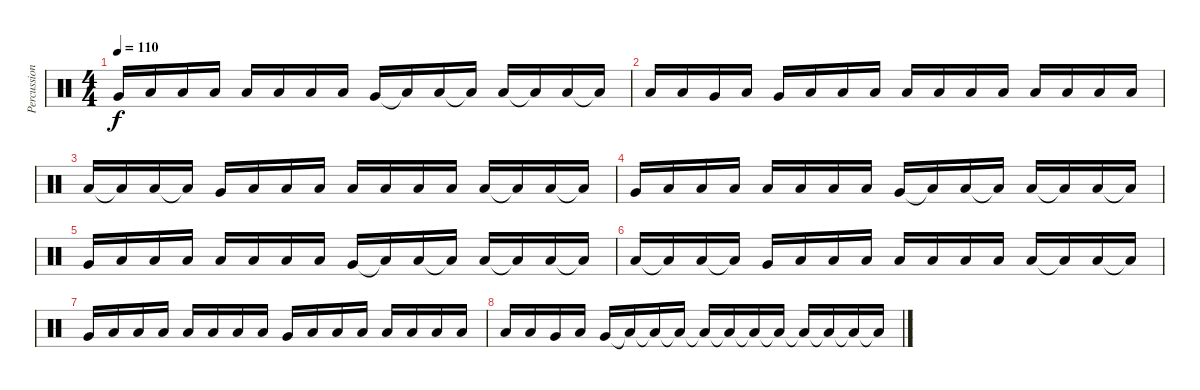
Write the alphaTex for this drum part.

\track ("Percussion" "Percussion") {instrument percussion}
\staff {score}
\articulation defaults
\ts (4 4)
\tempo 110
\clef neutral
\ks c "Very Low Tom (hit)".16{dy f} "Low Floor Tom (hit)".16 "Low Floor Tom (hit)".16 "Low Floor Tom (hit)".16 "Low Floor Tom (hit)".16 "Low Floor Tom (hit)".16 "Low Floor Tom (hit)".16 "Low Floor Tom (hit)".16 "Very Low Tom (hit)".16 "Low Floor Tom (hit)"{t}.16 "Low Floor Tom (hit)".16 "Low Floor Tom (hit)"{t}.16 "Low Floor Tom (hit)".16 "Low Floor Tom (hit)"{t}.16 "Low Floor Tom (hit)".16 "Low Floor Tom (hit)"{t}.16
|
"Low Floor Tom (hit)".16 "Low Floor Tom (hit)".16 "Very Low Tom (hit)".16 "Low Floor Tom (hit)".16 "Very Low Tom (hit)".16 "Low Floor Tom (hit)".16 "Low Floor Tom (hit)".16 "Low Floor Tom (hit)".16 "Low Floor Tom (hit)".16 "Low Floor Tom (hit)".16 "Low Floor Tom (hit)".16 "Low Floor Tom (hit)".16 "Low Floor Tom (hit)".16 "Low Floor Tom (hit)".16 "Low Floor Tom (hit)".16 "Low Floor Tom (hit)".16 |
"Low Floor Tom (hit)".16 "Low Floor Tom (hit)"{t}.16 "Low Floor Tom (hit)".16 "Low Floor Tom (hit)"{t}.16 "Very Low Tom (hit)".16 "Low Floor Tom (hit)".16 "Low Floor Tom (hit)".16 "Low Floor Tom (hit)".16 "Low Floor Tom (hit)".16 "Low Floor Tom (hit)".16 "Low Floor Tom (hit)".16 "Low Floor Tom (hit)".16 "Low Floor Tom (hit)".16 "Low Floor Tom (hit)"{t}.16 "Low Floor Tom (hit)".16 "Low Floor Tom (hit)"{t}.16 |
"Very Low Tom (hit)".16 "Low Floor Tom (hit)".16 "Low Floor Tom (hit)".16 "Low Floor Tom (hit)".16 "Low Floor Tom (hit)".16 "Low Floor Tom (hit)".16 "Low Floor Tom (hit)".16 "Low Floor Tom (hit)".16 "Very Low Tom (hit)".16 "Low Floor Tom (hit)"{t}.16 "Low Floor Tom (hit)".16 "Low Floor Tom (hit)"{t}.16 "Low Floor Tom (hit)".16 "Low Floor Tom (hit)"{t}.16 "Low Floor Tom (hit)".16 "Low Floor Tom (hit)"{t}.16 |
"Very Low Tom (hit)".16 "Low Floor Tom (hit)".16 "Low Floor Tom (hit)".16 "Low Floor Tom (hit)".16 "Low Floor Tom (hit)".16 "Low Floor Tom (hit)".16 "Low Floor Tom (hit)".16 "Low Floor Tom (hit)".16 "Very Low Tom (hit)".16 "Low Floor Tom (hit)"{t}.16 "Low Floor Tom (hit)".16 "Low Floor Tom (hit)"{t}.16 "Low Floor Tom (hit)".16 "Low Floor Tom (hit)"{t}.16 "Low Floor Tom (hit)".16 "Low Floor Tom (hit)"{t}.16 |
"Low Floor Tom (hit)".16 "Low Floor Tom (hit)"{t}.16 "Low Floor Tom (hit)".16 "Low Floor Tom (hit)"{t}.16 "Very Low Tom (hit)".16 "Low Floor Tom (hit)".16 "Low Floor Tom (hit)".16 "Low Floor Tom (hit)".16 "Low Floor Tom (hit)".16 "Low Floor Tom (hit)".16 "Low Floor Tom (hit)".16 "Low Floor Tom (hit)".16 "Low Floor Tom (hit)".16 "Low Floor Tom (hit)"{t}.16 "Low Floor Tom (hit)".16 "Low Floor Tom (hit)"{t}.16 |
"Very Low Tom (hit)".16 "Low Floor Tom (hit)".16 "Low Floor Tom (hit)".16 "Low Floor Tom (hit)".16 "Low Floor Tom (hit)".16 "Low Floor Tom (hit)".16 "Low Floor Tom (hit)".16 "Low Floor Tom (hit)".16 "Very Low Tom (hit)".16 "Low Floor Tom (hit)".16 "Low Floor Tom (hit)".16 "Low Floor Tom (hit)".16 "Low Floor Tom (hit)".16 "Low Floor Tom (hit)".16 "Low Floor Tom (hit)".16 "Low Floor Tom (hit)".16 |
"Low Floor Tom (hit)".16 "Low Floor Tom (hit)".16 "Very Low Tom (hit)".16 "Low Floor Tom (hit)".16 "Very Low Tom (hit)".16 "Low Floor Tom (hit)"{t}.16 "Low Floor Tom (hit)"{t}.16 "Low Floor Tom (hit)"{t}.16 "Low Floor Tom (hit)"{t}.16 "Low Floor Tom (hit)"{t}.16 "Low Floor Tom (hit)"{t}.16 "Low Floor Tom (hit)"{t}.16 "Low Floor Tom (hit)"{t}.16 "Low Floor Tom (hit)"{t}.16 "Low Floor Tom (hit)"{t}.16 "Low Floor Tom (hit)"{t}.16
